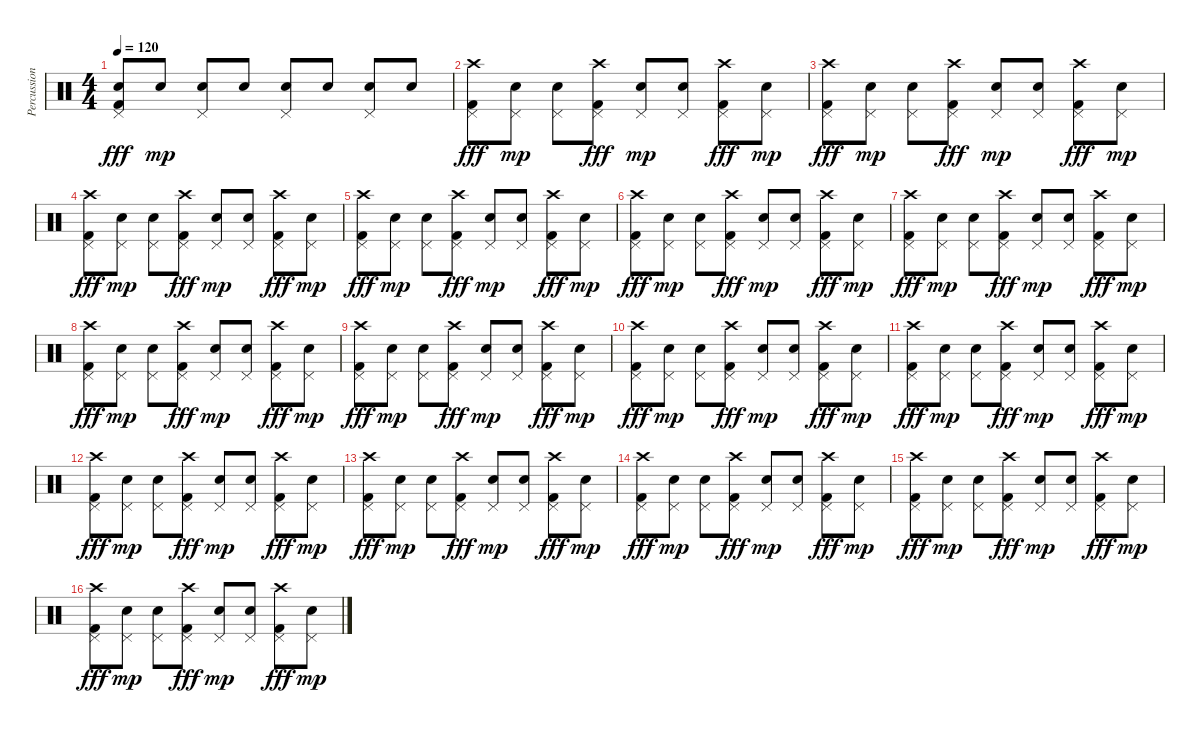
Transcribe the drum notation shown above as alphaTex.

\track ("Percussion" "Percussion") {instrument percussion}
\staff {score}
\articulation defaults
\ts (4 4)
\tempo 120
\clef neutral
\ks c
("Pedal Hi-Hat (hit)" "Electric Snare (hit)" "Kick (hit) 2").8{dy fff} "Electric Snare (hit)".8{dy mp} ("Pedal Hi-Hat (hit)" "Electric Snare (hit)").8 "Electric Snare (hit)".8 ("Pedal Hi-Hat (hit)" "Electric Snare (hit)").8 "Electric Snare (hit)".8 ("Pedal Hi-Hat (hit)" "Electric Snare (hit)").8 "Electric Snare (hit)".8 |
("Pedal Hi-Hat (hit)" "Crash high (hit)" "Kick (hit) 2").8{dy fff} ("Pedal Hi-Hat (hit)" "Electric Snare (hit)").8{dy mp} ("Pedal Hi-Hat (hit)" "Electric Snare (hit)").8 ("Pedal Hi-Hat (hit)" "Crash high (hit)" "Kick (hit) 2").8{dy fff} ("Pedal Hi-Hat (hit)" "Electric Snare (hit)").8{dy mp} ("Pedal Hi-Hat (hit)" "Electric Snare (hit)").8 ("Pedal Hi-Hat (hit)" "Crash high (hit)" "Kick (hit) 2").8{dy fff} ("Pedal Hi-Hat (hit)" "Electric Snare (hit)").8{dy mp} |
("Pedal Hi-Hat (hit)" "Crash high (hit)" "Kick (hit) 2").8{dy fff} ("Pedal Hi-Hat (hit)" "Electric Snare (hit)").8{dy mp} ("Pedal Hi-Hat (hit)" "Electric Snare (hit)").8 ("Pedal Hi-Hat (hit)" "Crash high (hit)" "Kick (hit) 2").8{dy fff} ("Pedal Hi-Hat (hit)" "Electric Snare (hit)").8{dy mp} ("Pedal Hi-Hat (hit)" "Electric Snare (hit)").8 ("Pedal Hi-Hat (hit)" "Crash high (hit)" "Kick (hit) 2").8{dy fff} ("Pedal Hi-Hat (hit)" "Electric Snare (hit)").8{dy mp} |
("Pedal Hi-Hat (hit)" "Crash high (hit)" "Kick (hit) 2").8{dy fff} ("Pedal Hi-Hat (hit)" "Electric Snare (hit)").8{dy mp} ("Pedal Hi-Hat (hit)" "Electric Snare (hit)").8 ("Pedal Hi-Hat (hit)" "Crash high (hit)" "Kick (hit) 2").8{dy fff} ("Pedal Hi-Hat (hit)" "Electric Snare (hit)").8{dy mp} ("Pedal Hi-Hat (hit)" "Electric Snare (hit)").8 ("Pedal Hi-Hat (hit)" "Crash high (hit)" "Kick (hit) 2").8{dy fff} ("Pedal Hi-Hat (hit)" "Electric Snare (hit)").8{dy mp} |
("Pedal Hi-Hat (hit)" "Crash high (hit)" "Kick (hit) 2").8{dy fff} ("Pedal Hi-Hat (hit)" "Electric Snare (hit)").8{dy mp} ("Pedal Hi-Hat (hit)" "Electric Snare (hit)").8 ("Pedal Hi-Hat (hit)" "Crash high (hit)" "Kick (hit) 2").8{dy fff} ("Pedal Hi-Hat (hit)" "Electric Snare (hit)").8{dy mp} ("Pedal Hi-Hat (hit)" "Electric Snare (hit)").8 ("Pedal Hi-Hat (hit)" "Crash high (hit)" "Kick (hit) 2").8{dy fff} ("Pedal Hi-Hat (hit)" "Electric Snare (hit)").8{dy mp} |
("Pedal Hi-Hat (hit)" "Crash high (hit)" "Kick (hit) 2").8{dy fff} ("Pedal Hi-Hat (hit)" "Electric Snare (hit)").8{dy mp} ("Pedal Hi-Hat (hit)" "Electric Snare (hit)").8 ("Pedal Hi-Hat (hit)" "Crash high (hit)" "Kick (hit) 2").8{dy fff} ("Pedal Hi-Hat (hit)" "Electric Snare (hit)").8{dy mp} ("Pedal Hi-Hat (hit)" "Electric Snare (hit)").8 ("Pedal Hi-Hat (hit)" "Crash high (hit)" "Kick (hit) 2").8{dy fff} ("Pedal Hi-Hat (hit)" "Electric Snare (hit)").8{dy mp} |
("Pedal Hi-Hat (hit)" "Crash high (hit)" "Kick (hit) 2").8{dy fff} ("Pedal Hi-Hat (hit)" "Electric Snare (hit)").8{dy mp} ("Pedal Hi-Hat (hit)" "Electric Snare (hit)").8 ("Pedal Hi-Hat (hit)" "Crash high (hit)" "Kick (hit) 2").8{dy fff} ("Pedal Hi-Hat (hit)" "Electric Snare (hit)").8{dy mp} ("Pedal Hi-Hat (hit)" "Electric Snare (hit)").8 ("Pedal Hi-Hat (hit)" "Crash high (hit)" "Kick (hit) 2").8{dy fff} ("Pedal Hi-Hat (hit)" "Electric Snare (hit)").8{dy mp} |
("Pedal Hi-Hat (hit)" "Crash high (hit)" "Kick (hit) 2").8{dy fff} ("Pedal Hi-Hat (hit)" "Electric Snare (hit)").8{dy mp} ("Pedal Hi-Hat (hit)" "Electric Snare (hit)").8 ("Pedal Hi-Hat (hit)" "Crash high (hit)" "Kick (hit) 2").8{dy fff} ("Pedal Hi-Hat (hit)" "Electric Snare (hit)").8{dy mp} ("Pedal Hi-Hat (hit)" "Electric Snare (hit)").8 ("Pedal Hi-Hat (hit)" "Crash high (hit)" "Kick (hit) 2").8{dy fff} ("Pedal Hi-Hat (hit)" "Electric Snare (hit)").8{dy mp} |
("Pedal Hi-Hat (hit)" "Crash high (hit)" "Kick (hit) 2").8{dy fff} ("Pedal Hi-Hat (hit)" "Electric Snare (hit)").8{dy mp} ("Pedal Hi-Hat (hit)" "Electric Snare (hit)").8 ("Pedal Hi-Hat (hit)" "Crash high (hit)" "Kick (hit) 2").8{dy fff} ("Pedal Hi-Hat (hit)" "Electric Snare (hit)").8{dy mp} ("Pedal Hi-Hat (hit)" "Electric Snare (hit)").8 ("Pedal Hi-Hat (hit)" "Crash high (hit)" "Kick (hit) 2").8{dy fff} ("Pedal Hi-Hat (hit)" "Electric Snare (hit)").8{dy mp} |
("Pedal Hi-Hat (hit)" "Crash high (hit)" "Kick (hit) 2").8{dy fff} ("Pedal Hi-Hat (hit)" "Electric Snare (hit)").8{dy mp} ("Pedal Hi-Hat (hit)" "Electric Snare (hit)").8 ("Pedal Hi-Hat (hit)" "Crash high (hit)" "Kick (hit) 2").8{dy fff} ("Pedal Hi-Hat (hit)" "Electric Snare (hit)").8{dy mp} ("Pedal Hi-Hat (hit)" "Electric Snare (hit)").8 ("Pedal Hi-Hat (hit)" "Crash high (hit)" "Kick (hit) 2").8{dy fff} ("Pedal Hi-Hat (hit)" "Electric Snare (hit)").8{dy mp} |
("Pedal Hi-Hat (hit)" "Crash high (hit)" "Kick (hit) 2").8{dy fff} ("Pedal Hi-Hat (hit)" "Electric Snare (hit)").8{dy mp} ("Pedal Hi-Hat (hit)" "Electric Snare (hit)").8 ("Pedal Hi-Hat (hit)" "Crash high (hit)" "Kick (hit) 2").8{dy fff} ("Pedal Hi-Hat (hit)" "Electric Snare (hit)").8{dy mp} ("Pedal Hi-Hat (hit)" "Electric Snare (hit)").8 ("Pedal Hi-Hat (hit)" "Crash high (hit)" "Kick (hit) 2").8{dy fff} ("Pedal Hi-Hat (hit)" "Electric Snare (hit)").8{dy mp} |
("Pedal Hi-Hat (hit)" "Crash high (hit)" "Kick (hit) 2").8{dy fff} ("Pedal Hi-Hat (hit)" "Electric Snare (hit)").8{dy mp} ("Pedal Hi-Hat (hit)" "Electric Snare (hit)").8 ("Pedal Hi-Hat (hit)" "Crash high (hit)" "Kick (hit) 2").8{dy fff} ("Pedal Hi-Hat (hit)" "Electric Snare (hit)").8{dy mp} ("Pedal Hi-Hat (hit)" "Electric Snare (hit)").8 ("Pedal Hi-Hat (hit)" "Crash high (hit)" "Kick (hit) 2").8{dy fff} ("Pedal Hi-Hat (hit)" "Electric Snare (hit)").8{dy mp} |
("Pedal Hi-Hat (hit)" "Crash high (hit)" "Kick (hit) 2").8{dy fff} ("Pedal Hi-Hat (hit)" "Electric Snare (hit)").8{dy mp} ("Pedal Hi-Hat (hit)" "Electric Snare (hit)").8 ("Pedal Hi-Hat (hit)" "Crash high (hit)" "Kick (hit) 2").8{dy fff} ("Pedal Hi-Hat (hit)" "Electric Snare (hit)").8{dy mp} ("Pedal Hi-Hat (hit)" "Electric Snare (hit)").8 ("Pedal Hi-Hat (hit)" "Crash high (hit)" "Kick (hit) 2").8{dy fff} ("Pedal Hi-Hat (hit)" "Electric Snare (hit)").8{dy mp} |
("Pedal Hi-Hat (hit)" "Crash high (hit)" "Kick (hit) 2").8{dy fff} ("Pedal Hi-Hat (hit)" "Electric Snare (hit)").8{dy mp} ("Pedal Hi-Hat (hit)" "Electric Snare (hit)").8 ("Pedal Hi-Hat (hit)" "Crash high (hit)" "Kick (hit) 2").8{dy fff} ("Pedal Hi-Hat (hit)" "Electric Snare (hit)").8{dy mp} ("Pedal Hi-Hat (hit)" "Electric Snare (hit)").8 ("Pedal Hi-Hat (hit)" "Crash high (hit)" "Kick (hit) 2").8{dy fff} ("Pedal Hi-Hat (hit)" "Electric Snare (hit)").8{dy mp} |
("Pedal Hi-Hat (hit)" "Crash high (hit)" "Kick (hit) 2").8{dy fff} ("Pedal Hi-Hat (hit)" "Electric Snare (hit)").8{dy mp} ("Pedal Hi-Hat (hit)" "Electric Snare (hit)").8 ("Pedal Hi-Hat (hit)" "Crash high (hit)" "Kick (hit) 2").8{dy fff} ("Pedal Hi-Hat (hit)" "Electric Snare (hit)").8{dy mp} ("Pedal Hi-Hat (hit)" "Electric Snare (hit)").8 ("Pedal Hi-Hat (hit)" "Crash high (hit)" "Kick (hit) 2").8{dy fff} ("Pedal Hi-Hat (hit)" "Electric Snare (hit)").8{dy mp} |
("Pedal Hi-Hat (hit)" "Crash high (hit)" "Kick (hit) 2").8{dy fff} ("Pedal Hi-Hat (hit)" "Electric Snare (hit)").8{dy mp} ("Pedal Hi-Hat (hit)" "Electric Snare (hit)").8 ("Pedal Hi-Hat (hit)" "Crash high (hit)" "Kick (hit) 2").8{dy fff} ("Pedal Hi-Hat (hit)" "Electric Snare (hit)").8{dy mp} ("Pedal Hi-Hat (hit)" "Electric Snare (hit)").8 ("Pedal Hi-Hat (hit)" "Crash high (hit)" "Kick (hit) 2").8{dy fff} ("Pedal Hi-Hat (hit)" "Electric Snare (hit)").8{dy mp}
